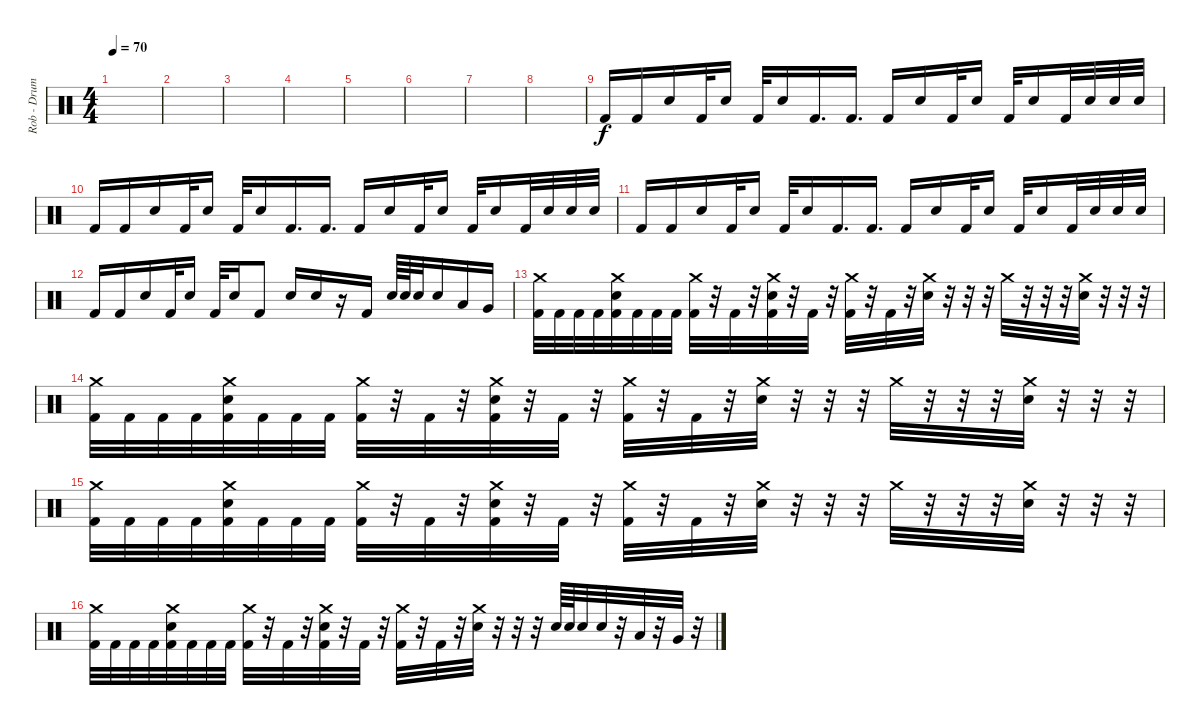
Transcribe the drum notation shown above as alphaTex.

\track ("Rob - Drums" "Rob - Drum") {instrument percussion}
\staff {score}
\articulation defaults
\ts (4 4)
\tempo 70
\clef neutral
\ks c
|
|
|
|
|
|
|
|
"Kick (hit) 2".16 "Kick (hit) 2".16 "Snare (hit) 2".16 "Kick (hit) 2".32 "Snare (hit) 2".16 "Kick (hit) 2".32 "Snare (hit) 2".16 "Kick (hit) 2".16{d} "Kick (hit) 2".16{d} "Kick (hit) 2".16 "Snare (hit) 2".16 "Kick (hit) 2".32 "Snare (hit) 2".16 "Kick (hit) 2".32 "Snare (hit) 2".16 "Kick (hit) 2".32 "Snare (hit) 2".32 "Snare (hit) 2".32 "Snare (hit) 2".32 |
"Kick (hit) 2".16 "Kick (hit) 2".16 "Snare (hit) 2".16 "Kick (hit) 2".32 "Snare (hit) 2".16 "Kick (hit) 2".32 "Snare (hit) 2".16 "Kick (hit) 2".16{d} "Kick (hit) 2".16{d} "Kick (hit) 2".16 "Snare (hit) 2".16 "Kick (hit) 2".32 "Snare (hit) 2".16 "Kick (hit) 2".32 "Snare (hit) 2".16 "Kick (hit) 2".32 "Snare (hit) 2".32 "Snare (hit) 2".32 "Snare (hit) 2".32 |
"Kick (hit) 2".16 "Kick (hit) 2".16 "Snare (hit) 2".16 "Kick (hit) 2".32 "Snare (hit) 2".16 "Kick (hit) 2".32 "Snare (hit) 2".16 "Kick (hit) 2".16{d} "Kick (hit) 2".16{d} "Kick (hit) 2".16 "Snare (hit) 2".16 "Kick (hit) 2".32 "Snare (hit) 2".16 "Kick (hit) 2".32 "Snare (hit) 2".16 "Kick (hit) 2".32 "Snare (hit) 2".32 "Snare (hit) 2".32 "Snare (hit) 2".32 |
"Kick (hit) 2".16 "Kick (hit) 2".16 "Snare (hit) 2".16 "Kick (hit) 2".32 "Snare (hit) 2".16 "Kick (hit) 2".32 "Snare (hit) 2".16 "Kick (hit) 2".8 "Snare (hit) 2".16 "Snare (hit) 2".16 r.16 "Kick (hit) 2".16 "Electric Snare (hit)".64 "Electric Snare (hit)".64 "Electric Snare (hit)".32 "Electric Snare (hit)".16 "Low Tom (hit)".16 "Very Low Tom (hit)".16 |
("Crash medium (hit)" "Kick (hit) 2").32{volume 16} "Kick (hit) 2".32 "Kick (hit) 2".32 "Kick (hit) 2".32 ("Crash medium (hit)" "Electric Snare (hit)" "Kick (hit) 2").32 "Kick (hit) 2".32 "Kick (hit) 2".32 "Kick (hit) 2".32 ("Crash medium (hit)" "Kick (hit) 2").32 r.32 "Kick (hit) 2".32 r.32 ("Crash medium (hit)" "Electric Snare (hit)" "Kick (hit) 2").32 r.32 "Kick (hit) 2".32 r.32 ("Crash medium (hit)" "Kick (hit) 2").32 r.32 "Kick (hit) 2".32 r.32 ("Crash medium (hit)" "Electric Snare (hit)").32 r.32 r.32 r.32 "Crash medium (hit)".32 r.32 r.32 r.32 ("Crash medium (hit)" "Electric Snare (hit)").32 r.32 r.32 r.32 |
("Crash medium (hit)" "Kick (hit) 2").32 "Kick (hit) 2".32 "Kick (hit) 2".32 "Kick (hit) 2".32 ("Crash medium (hit)" "Electric Snare (hit)" "Kick (hit) 2").32 "Kick (hit) 2".32 "Kick (hit) 2".32 "Kick (hit) 2".32 ("Crash medium (hit)" "Kick (hit) 2").32 r.32 "Kick (hit) 2".32 r.32 ("Crash medium (hit)" "Electric Snare (hit)" "Kick (hit) 2").32 r.32 "Kick (hit) 2".32 r.32 ("Crash medium (hit)" "Kick (hit) 2").32 r.32 "Kick (hit) 2".32 r.32 ("Crash medium (hit)" "Electric Snare (hit)").32 r.32 r.32 r.32 "Crash medium (hit)".32 r.32 r.32 r.32 ("Crash medium (hit)" "Electric Snare (hit)").32 r.32 r.32 r.32 |
("Crash medium (hit)" "Kick (hit) 2").32{volume 16} "Kick (hit) 2".32 "Kick (hit) 2".32 "Kick (hit) 2".32 ("Crash medium (hit)" "Electric Snare (hit)" "Kick (hit) 2").32 "Kick (hit) 2".32 "Kick (hit) 2".32 "Kick (hit) 2".32 ("Crash medium (hit)" "Kick (hit) 2").32 r.32 "Kick (hit) 2".32 r.32 ("Crash medium (hit)" "Electric Snare (hit)" "Kick (hit) 2").32 r.32 "Kick (hit) 2".32 r.32 ("Crash medium (hit)" "Kick (hit) 2").32 r.32 "Kick (hit) 2".32 r.32 ("Crash medium (hit)" "Electric Snare (hit)").32 r.32 r.32 r.32 "Crash medium (hit)".32 r.32 r.32 r.32 ("Crash medium (hit)" "Electric Snare (hit)").32 r.32 r.32 r.32 |
("Crash medium (hit)" "Kick (hit) 2").32 "Kick (hit) 2".32 "Kick (hit) 2".32 "Kick (hit) 2".32 ("Crash medium (hit)" "Electric Snare (hit)" "Kick (hit) 2").32 "Kick (hit) 2".32 "Kick (hit) 2".32 "Kick (hit) 2".32 ("Crash medium (hit)" "Kick (hit) 2").32 r.32 "Kick (hit) 2".32 r.32 ("Crash medium (hit)" "Electric Snare (hit)" "Kick (hit) 2").32 r.32 "Kick (hit) 2".32 r.32 ("Crash medium (hit)" "Kick (hit) 2").32 r.32 "Kick (hit) 2".32 r.32 ("Crash medium (hit)" "Electric Snare (hit)").32 r.32 r.32 r.32 "Electric Snare (hit)".64 "Electric Snare (hit)".64 "Electric Snare (hit)".32 "Electric Snare (hit)".32 r.32 "Low Tom (hit)".32 r.32 "Very Low Tom (hit)".32 r.32
